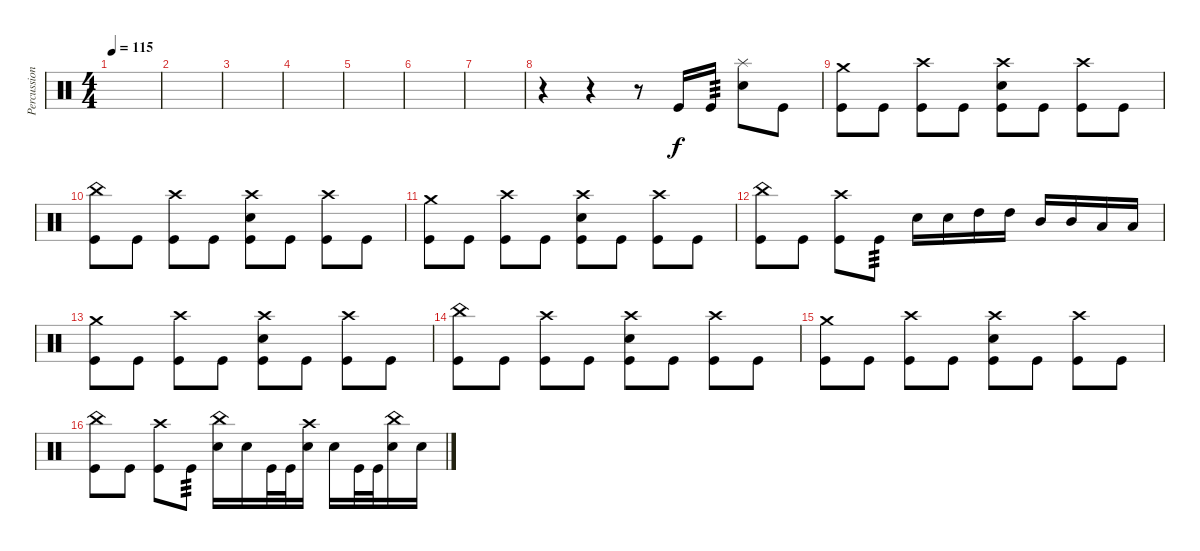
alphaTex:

\track ("Percussion" "Percussion") {instrument percussion}
\staff {score}
\articulation defaults
\ts (4 4)
\tempo 115
\clef neutral
\ks c
|
|
|
|
|
|
|
r.4 r.4 r.8 "Kick (hit)".16 "Kick (hit)".16{tp 3} ("Splash (hit)" "Electric Snare (hit)").8 "Kick (hit)".8 |
("Crash medium (hit)" "Kick (hit)").8 "Kick (hit)".8 ("Crash high (hit)" "Kick (hit)").8 "Kick (hit)".8 ("Crash high (hit)" "Electric Snare (hit)" "Kick (hit)").8 "Kick (hit)".8 ("Crash high (hit)" "Kick (hit)").8 "Kick (hit)".8 |
("China (hit)" "Kick (hit)").8 "Kick (hit)".8 ("Crash high (hit)" "Kick (hit)").8 "Kick (hit)".8 ("Crash high (hit)" "Electric Snare (hit)" "Kick (hit)").8 "Kick (hit)".8 ("Crash high (hit)" "Kick (hit)").8 "Kick (hit)".8 |
("Crash medium (hit)" "Kick (hit)").8 "Kick (hit)".8 ("Crash high (hit)" "Kick (hit)").8 "Kick (hit)".8 ("Crash high (hit)" "Electric Snare (hit)" "Kick (hit)").8 "Kick (hit)".8 ("Crash high (hit)" "Kick (hit)").8 "Kick (hit)".8 |
("China (hit)" "Kick (hit)").8 "Kick (hit)".8 ("Crash high (hit)" "Kick (hit)").8 "Kick (hit)".8{tp 3} "Electric Snare (hit)".16 "Electric Snare (hit)".16 "High Tom (hit)".16 "High Tom (hit)".16 "Mid Tom (hit)".16 "Mid Tom (hit)".16 "Low Tom (hit)".16 "Low Tom (hit)".16 |
("Crash medium (hit)" "Kick (hit)").8 "Kick (hit)".8 ("Crash high (hit)" "Kick (hit)").8 "Kick (hit)".8 ("Crash high (hit)" "Electric Snare (hit)" "Kick (hit)").8 "Kick (hit)".8 ("Crash high (hit)" "Kick (hit)").8 "Kick (hit)".8 |
("China (hit)" "Kick (hit)").8 "Kick (hit)".8 ("Crash high (hit)" "Kick (hit)").8 "Kick (hit)".8 ("Crash high (hit)" "Electric Snare (hit)" "Kick (hit)").8 "Kick (hit)".8 ("Crash high (hit)" "Kick (hit)").8 "Kick (hit)".8 |
("Crash medium (hit)" "Kick (hit)").8 "Kick (hit)".8 ("Crash high (hit)" "Kick (hit)").8 "Kick (hit)".8 ("Crash high (hit)" "Electric Snare (hit)" "Kick (hit)").8 "Kick (hit)".8 ("Crash high (hit)" "Kick (hit)").8 "Kick (hit)".8 |
("China (hit)" "Kick (hit)").8 "Kick (hit)".8 ("Crash high (hit)" "Kick (hit)").8 "Kick (hit)".8{tp 3} ("China (hit)" "Electric Snare (hit)").16 "Electric Snare (hit)".16 "Kick (hit)".32 "Kick (hit)".32 ("Crash high (hit)" "Electric Snare (hit)").16 "Electric Snare (hit)".16 "Kick (hit)".32 "Kick (hit)".32 ("China (hit)" "Electric Snare (hit)").16 "Electric Snare (hit)".16
